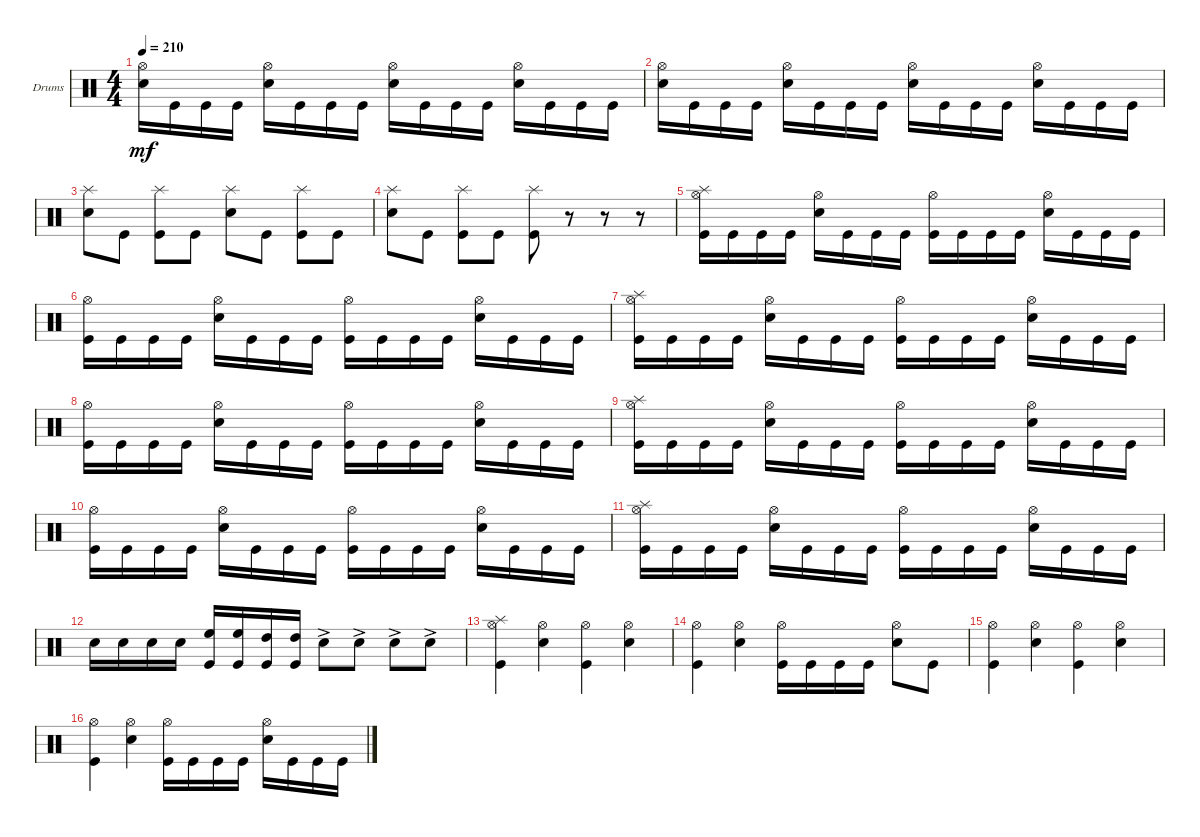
\bracketExtendMode groupsimilarinstruments
\firstSystemTrackNameOrientation horizontal
\otherSystemsTrackNameOrientation horizontal
\track ("Drumkit" "Drums") {instrument percussion}
\staff {score}
\articulation defaults
\ts (4 4)
\tempo 210
\clef neutral
\ks c
("Snare (hit) 2" "Hi-Hat (open)").16{dy mf} "Kick (hit)".16 "Kick (hit)".16 "Kick (hit)".16 ("Snare (hit) 2" "Hi-Hat (open)").16 "Kick (hit)".16 "Kick (hit)".16 "Kick (hit)".16 ("Snare (hit) 2" "Hi-Hat (open)").16 "Kick (hit)".16 "Kick (hit)".16 "Kick (hit)".16 ("Snare (hit) 2" "Hi-Hat (open)").16 "Kick (hit)".16 "Kick (hit)".16 "Kick (hit)".16 |
("Snare (hit) 2" "Hi-Hat (open)").16 "Kick (hit)".16 "Kick (hit)".16 "Kick (hit)".16 ("Snare (hit) 2" "Hi-Hat (open)").16 "Kick (hit)".16 "Kick (hit)".16 "Kick (hit)".16 ("Snare (hit) 2" "Hi-Hat (open)").16 "Kick (hit)".16 "Kick (hit)".16 "Kick (hit)".16 ("Snare (hit) 2" "Hi-Hat (open)").16 "Kick (hit)".16 "Kick (hit)".16 "Kick (hit)".16 |
("Snare (hit) 2" "Splash (hit)").8 "Kick (hit)".8 ("Kick (hit)" "Splash (hit)").8 "Kick (hit)".8 ("Snare (hit) 2" "Splash (hit)").8 "Kick (hit)".8 ("Kick (hit)" "Splash (hit)").8 "Kick (hit)".8 |
("Snare (hit) 2" "Splash (hit)").8 "Kick (hit)".8 ("Kick (hit)" "Splash (hit)").8 "Kick (hit)".8 ("Kick (hit)" "Splash (hit)").8 r.8 r.8 r.8 |
("Kick (hit)" "Hi-Hat (open)" "Splash (hit)").16 "Kick (hit)".16 "Kick (hit)".16 "Kick (hit)".16 ("Snare (hit) 2" "Hi-Hat (open)").16 "Kick (hit)".16 "Kick (hit)".16 "Kick (hit)".16 ("Kick (hit)" "Hi-Hat (open)").16 "Kick (hit)".16 "Kick (hit)".16 "Kick (hit)".16 ("Snare (hit) 2" "Hi-Hat (open)").16 "Kick (hit)".16 "Kick (hit)".16 "Kick (hit)".16 |
("Kick (hit)" "Hi-Hat (open)").16 "Kick (hit)".16 "Kick (hit)".16 "Kick (hit)".16 ("Snare (hit) 2" "Hi-Hat (open)").16 "Kick (hit)".16 "Kick (hit)".16 "Kick (hit)".16 ("Kick (hit)" "Hi-Hat (open)").16 "Kick (hit)".16 "Kick (hit)".16 "Kick (hit)".16 ("Snare (hit) 2" "Hi-Hat (open)").16 "Kick (hit)".16 "Kick (hit)".16 "Kick (hit)".16 |
("Kick (hit)" "Hi-Hat (open)" "Splash (hit)").16 "Kick (hit)".16 "Kick (hit)".16 "Kick (hit)".16 ("Snare (hit) 2" "Hi-Hat (open)").16 "Kick (hit)".16 "Kick (hit)".16 "Kick (hit)".16 ("Kick (hit)" "Hi-Hat (open)").16 "Kick (hit)".16 "Kick (hit)".16 "Kick (hit)".16 ("Snare (hit) 2" "Hi-Hat (open)").16 "Kick (hit)".16 "Kick (hit)".16 "Kick (hit)".16 |
("Kick (hit)" "Hi-Hat (open)").16 "Kick (hit)".16 "Kick (hit)".16 "Kick (hit)".16 ("Snare (hit) 2" "Hi-Hat (open)").16 "Kick (hit)".16 "Kick (hit)".16 "Kick (hit)".16 ("Kick (hit)" "Hi-Hat (open)").16 "Kick (hit)".16 "Kick (hit)".16 "Kick (hit)".16 ("Snare (hit) 2" "Hi-Hat (open)").16 "Kick (hit)".16 "Kick (hit)".16 "Kick (hit)".16 |
("Kick (hit)" "Hi-Hat (open)" "Splash (hit)").16 "Kick (hit)".16 "Kick (hit)".16 "Kick (hit)".16 ("Snare (hit) 2" "Hi-Hat (open)").16 "Kick (hit)".16 "Kick (hit)".16 "Kick (hit)".16 ("Kick (hit)" "Hi-Hat (open)").16 "Kick (hit)".16 "Kick (hit)".16 "Kick (hit)".16 ("Snare (hit) 2" "Hi-Hat (open)").16 "Kick (hit)".16 "Kick (hit)".16 "Kick (hit)".16 |
("Kick (hit)" "Hi-Hat (open)").16 "Kick (hit)".16 "Kick (hit)".16 "Kick (hit)".16 ("Snare (hit) 2" "Hi-Hat (open)").16 "Kick (hit)".16 "Kick (hit)".16 "Kick (hit)".16 ("Kick (hit)" "Hi-Hat (open)").16 "Kick (hit)".16 "Kick (hit)".16 "Kick (hit)".16 ("Snare (hit) 2" "Hi-Hat (open)").16 "Kick (hit)".16 "Kick (hit)".16 "Kick (hit)".16 |
("Kick (hit)" "Hi-Hat (open)" "Splash (hit)").16 "Kick (hit)".16 "Kick (hit)".16 "Kick (hit)".16 ("Snare (hit) 2" "Hi-Hat (open)").16 "Kick (hit)".16 "Kick (hit)".16 "Kick (hit)".16 ("Kick (hit)" "Hi-Hat (open)").16 "Kick (hit)".16 "Kick (hit)".16 "Kick (hit)".16 ("Snare (hit) 2" "Hi-Hat (open)").16 "Kick (hit)".16 "Kick (hit)".16 "Kick (hit)".16 |
"Snare (hit) 2".16 "Snare (hit) 2".16 "Snare (hit) 2".16 "Snare (hit) 2".16 ("High Floor Tom (hit)" "Kick (hit)").16 ("High Floor Tom (hit)" "Kick (hit)").16 ("High Tom (hit)" "Kick (hit)").16 ("High Tom (hit)" "Kick (hit)").16 "Snare (hit) 2"{ac}.8 "Snare (hit) 2"{ac}.8 "Snare (hit) 2"{ac}.8 "Snare (hit) 2"{ac}.8 |
("Kick (hit)" "Splash (hit)" "Hi-Hat (open)").4 ("Snare (hit) 2" "Hi-Hat (open)").4 ("Kick (hit)" "Hi-Hat (open)").4 ("Snare (hit) 2" "Hi-Hat (open)").4 |
("Kick (hit)" "Hi-Hat (open)").4 ("Snare (hit) 2" "Hi-Hat (open)").4 ("Kick (hit)" "Hi-Hat (open)").16 "Kick (hit)".16 "Kick (hit)".16 "Kick (hit)".16 ("Snare (hit) 2" "Hi-Hat (open)").8 "Kick (hit)".8 |
("Kick (hit)" "Hi-Hat (open)").4 ("Snare (hit) 2" "Hi-Hat (open)").4 ("Kick (hit)" "Hi-Hat (open)").4 ("Snare (hit) 2" "Hi-Hat (open)").4 |
("Kick (hit)" "Hi-Hat (open)").4 ("Snare (hit) 2" "Hi-Hat (open)").4 ("Kick (hit)" "Hi-Hat (open)").16 "Kick (hit)".16 "Kick (hit)".16 "Kick (hit)".16 ("Snare (hit) 2" "Hi-Hat (open)").16 "Kick (hit)".16 "Kick (hit)".16 "Kick (hit)".16
